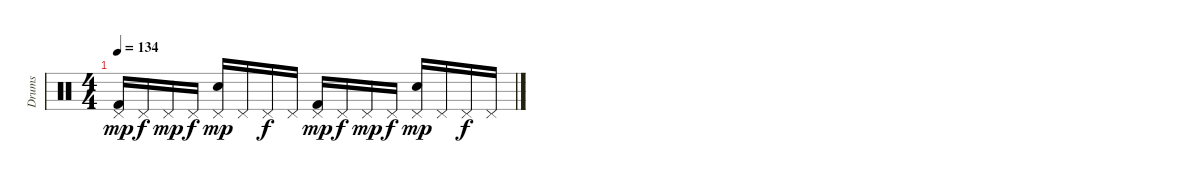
\track ("Drums" "Drums") {instrument percussion}
\staff {score}
\articulation defaults
\ts (4 4)
\tempo 134
\clef neutral
\ks c
("Pedal Hi-Hat (hit)" "Kick (hit) 2").16{dy mp} "Pedal Hi-Hat (hit)".16{dy f} "Pedal Hi-Hat (hit)".16{dy mp} "Pedal Hi-Hat (hit)".16{dy f} ("Pedal Hi-Hat (hit)" "Electric Snare (hit)").16{dy mp} "Pedal Hi-Hat (hit)".16 "Pedal Hi-Hat (hit)".16{dy f} "Pedal Hi-Hat (hit)".16 ("Pedal Hi-Hat (hit)" "Kick (hit) 2").16{dy mp} "Pedal Hi-Hat (hit)".16{dy f} "Pedal Hi-Hat (hit)".16{dy mp} "Pedal Hi-Hat (hit)".16{dy f} ("Pedal Hi-Hat (hit)" "Electric Snare (hit)").16{dy mp} "Pedal Hi-Hat (hit)".16 "Pedal Hi-Hat (hit)".16{dy f} "Pedal Hi-Hat (hit)".16
